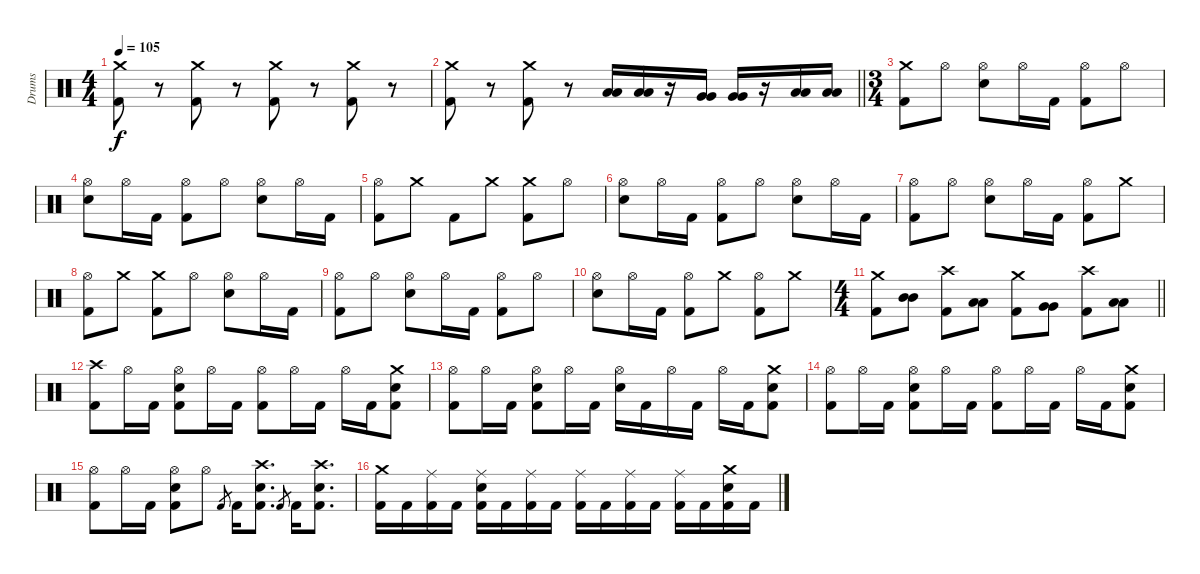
\track ("Drums" "Drums") {instrument percussion}
\staff {score}
\articulation defaults
\ts (4 4)
\tempo 105
\clef neutral
\ks c
("Crash medium (hit)" "Kick (hit) 2").8{dy f} r.8 ("Crash medium (hit)" "Kick (hit) 2").8 r.8 ("Crash medium (hit)" "Kick (hit) 2").8 r.8 ("Crash medium (hit)" "Kick (hit) 2").8 r.8 |
\barLineRight lightlight
("Crash medium (hit)" "Kick (hit) 2").8 r.8 ("Crash medium (hit)" "Kick (hit) 2").8 r.8 ("Low Tom (hit)" "Low Tom (hit)").16 ("Low Tom (hit)" "Low Tom (hit)").16 r.16 ("Very Low Tom (hit)" "Very Low Tom (hit)").16 ("Very Low Tom (hit)" "Very Low Tom (hit)").16 r.16 ("Low Floor Tom (hit)" "Low Floor Tom (hit)").16 ("Low Floor Tom (hit)" "Low Floor Tom (hit)").16 |
\ts (3 4)
("Crash medium (hit)" "Kick (hit) 2").8 "Hi-Hat (open)".8 ("Hi-Hat (open)" "Snare (hit) 2").8 "Hi-Hat (open)".16 "Kick (hit) 2".16 ("Hi-Hat (open)" "Kick (hit) 2").8 "Hi-Hat (open)".8 |
("Hi-Hat (open)" "Snare (hit) 2").8 "Hi-Hat (open)".16 "Kick (hit) 2".16 ("Hi-Hat (open)" "Kick (hit) 2").8 "Hi-Hat (open)".8 ("Hi-Hat (open)" "Snare (hit) 2").8 "Hi-Hat (open)".16 "Kick (hit) 2".16 |
("Hi-Hat (open)" "Kick (hit) 2").8 "Crash medium (hit)".8 "Kick (hit) 2".8 "Crash medium (hit)".8 ("Crash medium (hit)" "Kick (hit) 2").8 "Hi-Hat (open)".8 |
("Hi-Hat (open)" "Snare (hit) 2").8 "Hi-Hat (open)".16 "Kick (hit) 2".16 ("Hi-Hat (open)" "Kick (hit) 2").8 "Hi-Hat (open)".8 ("Hi-Hat (open)" "Snare (hit) 2").8 "Hi-Hat (open)".16 "Kick (hit) 2".16 |
("Hi-Hat (open)" "Kick (hit) 2").8 "Hi-Hat (open)".8 ("Hi-Hat (open)" "Snare (hit) 2").8 "Hi-Hat (open)".16 "Kick (hit) 2".16 ("Hi-Hat (open)" "Kick (hit) 2").8 "Crash medium (hit)".8 |
("Hi-Hat (open)" "Kick (hit) 2").8 "Crash medium (hit)".8 ("Crash medium (hit)" "Kick (hit) 2").8 "Hi-Hat (open)".8 ("Hi-Hat (open)" "Snare (hit) 2").8 "Hi-Hat (open)".16 "Kick (hit) 2".16 |
("Hi-Hat (open)" "Kick (hit) 2").8 "Hi-Hat (open)".8 ("Hi-Hat (open)" "Snare (hit) 2").8 "Hi-Hat (open)".16 "Kick (hit) 2".16 ("Hi-Hat (open)" "Kick (hit) 2").8 "Hi-Hat (open)".8 |
("Hi-Hat (open)" "Snare (hit) 2").8 "Hi-Hat (open)".16 "Kick (hit) 2".16 ("Hi-Hat (open)" "Kick (hit) 2").8 "Crash medium (hit)".8 ("Hi-Hat (open)" "Kick (hit) 2").8 "Crash medium (hit)".8 |
\ts (4 4)
\barLineRight lightlight
("Crash medium (hit)" "Kick (hit) 2").8 ("Mid Tom (hit)" "Mid Tom (hit)").8 ("Crash high (hit)" "Kick (hit) 2").8 ("Low Tom (hit)" "Low Tom (hit)").8 ("Crash medium (hit)" "Kick (hit) 2").8 ("Very Low Tom (hit)" "Very Low Tom (hit)").8 ("Crash high (hit)" "Kick (hit) 2").8 ("Low Floor Tom (hit)" "Low Floor Tom (hit)").8 |
("Crash high (hit)" "Kick (hit) 2").8 "Hi-Hat (open)".16 "Kick (hit) 2".16 ("Hi-Hat (open)" "Snare (hit) 2" "Kick (hit) 2").8 "Hi-Hat (open)".16 "Kick (hit) 2".16 ("Hi-Hat (open)" "Kick (hit) 2").8 "Hi-Hat (open)".16 "Kick (hit) 2".16 "Hi-Hat (open)".16 "Kick (hit) 2".16 ("Crash medium (hit)" "Snare (hit) 2" "Kick (hit) 2").8 |
("Hi-Hat (open)" "Kick (hit) 2").8 "Hi-Hat (open)".16 "Kick (hit) 2".16 ("Hi-Hat (open)" "Snare (hit) 2" "Kick (hit) 2").8 "Hi-Hat (open)".16 "Kick (hit) 2".16 ("Hi-Hat (open)" "Snare (hit) 2").16 "Kick (hit) 2".16 "Hi-Hat (open)".16 "Kick (hit) 2".16 "Hi-Hat (open)".16 "Kick (hit) 2".16 ("Crash medium (hit)" "Snare (hit) 2" "Kick (hit) 2").8 |
("Hi-Hat (open)" "Kick (hit) 2").8 "Hi-Hat (open)".16 "Kick (hit) 2".16 ("Hi-Hat (open)" "Snare (hit) 2" "Kick (hit) 2").8 "Hi-Hat (open)".16 "Kick (hit) 2".16 ("Hi-Hat (open)" "Kick (hit) 2").8 "Hi-Hat (open)".16 "Kick (hit) 2".16 "Hi-Hat (open)".16 "Kick (hit) 2".16 ("Crash medium (hit)" "Snare (hit) 2" "Kick (hit) 2").8 |
("Hi-Hat (open)" "Kick (hit) 2").8 "Hi-Hat (open)".16 "Kick (hit) 2".16 ("Hi-Hat (open)" "Snare (hit) 2" "Kick (hit) 2").8 "Hi-Hat (open)".8 "Kick (hit) 2".8{gr} "Kick (hit) 2".16 ("Crash high (hit)" "Snare (hit) 2" "Kick (hit) 2").8{d} "Kick (hit) 2".8{gr} "Kick (hit) 2".16 ("Crash high (hit)" "Snare (hit) 2" "Kick (hit) 2").8{d} |
("Crash medium (hit)" "Kick (hit) 2").16 "Kick (hit) 2".16 ("Ride (middle)" "Kick (hit) 2").16 "Kick (hit) 2".16 ("Ride (middle)" "Snare (hit) 2" "Kick (hit) 2").16 "Kick (hit) 2".16 ("Ride (middle)" "Kick (hit) 2").16 "Kick (hit) 2".16 ("Ride (middle)" "Kick (hit) 2").16 "Kick (hit) 2".16 ("Ride (middle)" "Kick (hit) 2").16 "Kick (hit) 2".16 ("Ride (middle)" "Kick (hit) 2").16 "Kick (hit) 2".16 ("Crash medium (hit)" "Snare (hit) 2" "Kick (hit) 2").16 "Kick (hit) 2".16
